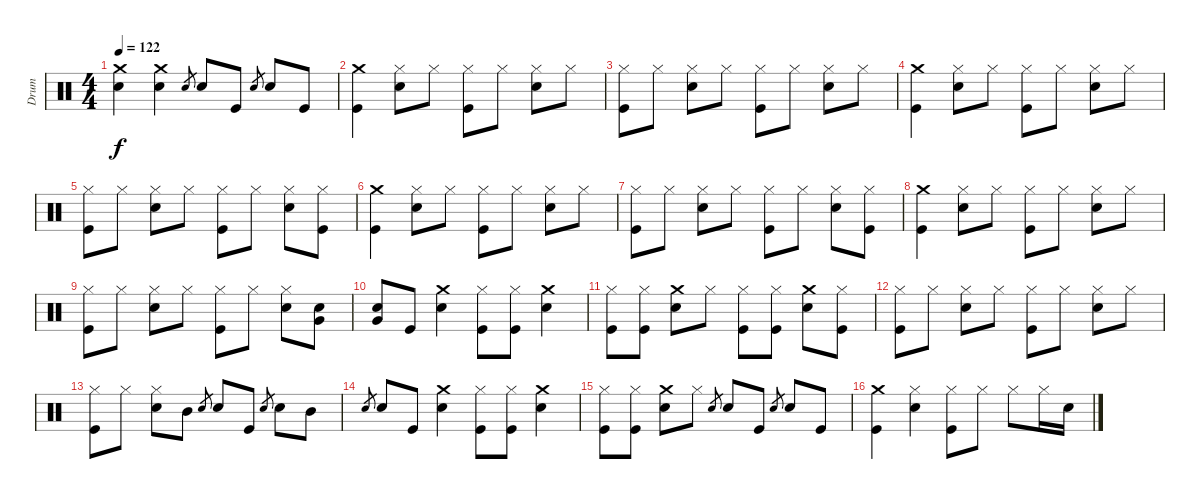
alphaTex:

\track ("Drum" "Drum") {instrument percussion}
\staff {score}
\articulation defaults
\ts (4 4)
\tempo 122
\clef neutral
\ks c
("Electric Snare (hit)" "Crash medium (hit)").4{dy f} ("Electric Snare (hit)" "Crash medium (hit)").4 "Electric Snare (hit)".8{gr} "Electric Snare (hit)".8 "Kick (hit)".8 "Electric Snare (hit)".8{gr} "Electric Snare (hit)".8 "Kick (hit)".8 |
("Kick (hit)" "Crash medium (hit)").4 ("Electric Snare (hit)" "Hi-Hat (closed)").8 "Hi-Hat (closed)".8 ("Kick (hit)" "Hi-Hat (closed)").8 "Hi-Hat (closed)".8 ("Electric Snare (hit)" "Hi-Hat (closed)").8 "Hi-Hat (closed)".8 |
("Kick (hit)" "Hi-Hat (closed)").8 "Hi-Hat (closed)".8 ("Electric Snare (hit)" "Hi-Hat (closed)").8 "Hi-Hat (closed)".8 ("Kick (hit)" "Hi-Hat (closed)").8 "Hi-Hat (closed)".8 ("Electric Snare (hit)" "Hi-Hat (closed)").8 "Hi-Hat (closed)".8 |
("Kick (hit)" "Crash medium (hit)").4 ("Electric Snare (hit)" "Hi-Hat (closed)").8 "Hi-Hat (closed)".8 ("Kick (hit)" "Hi-Hat (closed)").8 "Hi-Hat (closed)".8 ("Electric Snare (hit)" "Hi-Hat (closed)").8 "Hi-Hat (closed)".8 |
("Kick (hit)" "Hi-Hat (closed)").8 "Hi-Hat (closed)".8 ("Electric Snare (hit)" "Hi-Hat (closed)").8 "Hi-Hat (closed)".8 ("Kick (hit)" "Hi-Hat (closed)").8 "Hi-Hat (closed)".8 ("Electric Snare (hit)" "Hi-Hat (closed)").8 ("Kick (hit)" "Hi-Hat (closed)").8 |
("Kick (hit)" "Crash medium (hit)").4 ("Electric Snare (hit)" "Hi-Hat (closed)").8 "Hi-Hat (closed)".8 ("Kick (hit)" "Hi-Hat (closed)").8 "Hi-Hat (closed)".8 ("Electric Snare (hit)" "Hi-Hat (closed)").8 "Hi-Hat (closed)".8 |
("Kick (hit)" "Hi-Hat (closed)").8 "Hi-Hat (closed)".8 ("Electric Snare (hit)" "Hi-Hat (closed)").8 "Hi-Hat (closed)".8 ("Kick (hit)" "Hi-Hat (closed)").8 "Hi-Hat (closed)".8 ("Electric Snare (hit)" "Hi-Hat (closed)").8 ("Kick (hit)" "Hi-Hat (closed)").8 |
("Kick (hit)" "Crash medium (hit)").4 ("Electric Snare (hit)" "Hi-Hat (closed)").8 "Hi-Hat (closed)".8 ("Kick (hit)" "Hi-Hat (closed)").8 "Hi-Hat (closed)".8 ("Electric Snare (hit)" "Hi-Hat (closed)").8 "Hi-Hat (closed)".8 |
("Kick (hit)" "Hi-Hat (closed)").8 "Hi-Hat (closed)".8 ("Electric Snare (hit)" "Hi-Hat (closed)").8 "Hi-Hat (closed)".8 ("Kick (hit)" "Hi-Hat (closed)").8 "Hi-Hat (closed)".8 ("Electric Snare (hit)" "Hi-Hat (closed)").8 ("Electric Snare (hit)" "Very Low Tom (hit)").8 |
("Electric Snare (hit)" "Very Low Tom (hit)").8 "Kick (hit)".8 ("Electric Snare (hit)" "Crash medium (hit)").4 ("Kick (hit)" "Hi-Hat (closed)").8 ("Kick (hit)" "Hi-Hat (closed)").8 ("Electric Snare (hit)" "Crash medium (hit)").4 |
("Kick (hit)" "Hi-Hat (closed)").8 ("Kick (hit)" "Hi-Hat (closed)").8 ("Electric Snare (hit)" "Crash medium (hit)").8 "Hi-Hat (closed)".8 ("Kick (hit)" "Hi-Hat (closed)").8 ("Kick (hit)" "Hi-Hat (closed)").8 ("Electric Snare (hit)" "Crash medium (hit)").8 ("Kick (hit)" "Hi-Hat (closed)").8 |
("Kick (hit)" "Hi-Hat (closed)").8 "Hi-Hat (closed)".8 ("Electric Snare (hit)" "Hi-Hat (closed)").8 "Hi-Hat (closed)".8 ("Kick (hit)" "Hi-Hat (closed)").8 "Hi-Hat (closed)".8 ("Electric Snare (hit)" "Hi-Hat (closed)").8 "Hi-Hat (closed)".8 |
("Kick (hit)" "Hi-Hat (closed)").8 "Hi-Hat (closed)".8 ("Electric Snare (hit)" "Hi-Hat (closed)").8 "Mid Tom (hit)".8 "Electric Snare (hit)".8{gr} "Electric Snare (hit)".8 "Kick (hit)".8 "Electric Snare (hit)".8{gr} "Electric Snare (hit)".8 "Mid Tom (hit)".8 |
"Electric Snare (hit)".8{gr} "Electric Snare (hit)".8 "Kick (hit)".8 ("Electric Snare (hit)" "Crash medium (hit)").4 ("Kick (hit)" "Hi-Hat (closed)").8 ("Kick (hit)" "Hi-Hat (closed)").8 ("Electric Snare (hit)" "Crash medium (hit)").4 |
("Kick (hit)" "Hi-Hat (closed)").8 ("Kick (hit)" "Hi-Hat (closed)").8 ("Electric Snare (hit)" "Crash medium (hit)").8 "Hi-Hat (closed)".8 "Electric Snare (hit)".8{gr} "Electric Snare (hit)".8 "Kick (hit)".8 "Electric Snare (hit)".8{gr} "Electric Snare (hit)".8 "Kick (hit)".8 |
("Kick (hit)" "Crash medium (hit)").4 ("Electric Snare (hit)" "Hi-Hat (closed)").4 ("Kick (hit)" "Hi-Hat (closed)").8 "Hi-Hat (closed)".8 "Hi-Hat (closed)".8 "Hi-Hat (closed)".16 "Electric Snare (hit)".16
